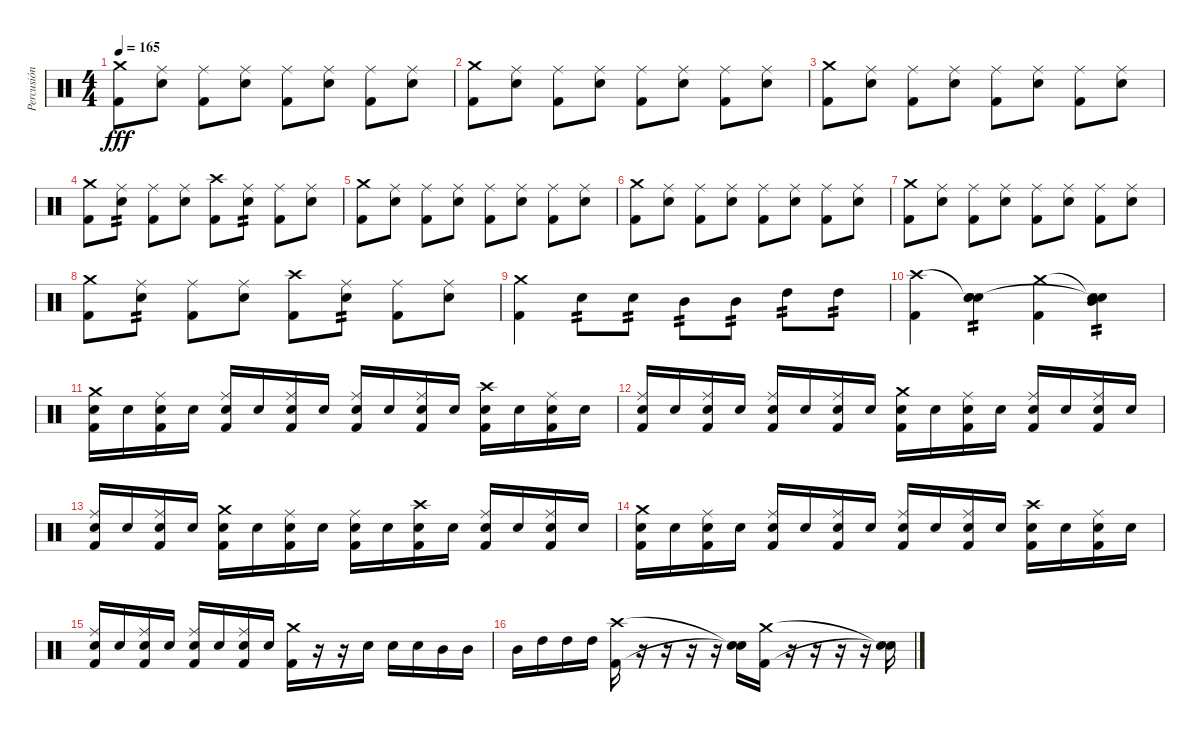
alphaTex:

\track ("Percusión" "Percusión") {instrument percussion}
\staff {score}
\articulation defaults
\ts (4 4)
\tempo 165
\clef neutral
\ks c
("Crash medium (hit)" "Kick (hit) 2").8{dy fff} ("Ride (middle)" "Electric Snare (hit)").8 ("Ride (middle)" "Kick (hit) 2").8 ("Ride (middle)" "Electric Snare (hit)").8 ("Ride (middle)" "Kick (hit) 2").8 ("Ride (middle)" "Electric Snare (hit)").8 ("Ride (middle)" "Kick (hit) 2").8 ("Ride (middle)" "Electric Snare (hit)").8 |
("Crash medium (hit)" "Kick (hit) 2").8 ("Ride (middle)" "Electric Snare (hit)").8 ("Ride (middle)" "Kick (hit) 2").8 ("Ride (middle)" "Electric Snare (hit)").8 ("Ride (middle)" "Kick (hit) 2").8 ("Ride (middle)" "Electric Snare (hit)").8 ("Ride (middle)" "Kick (hit) 2").8 ("Ride (middle)" "Electric Snare (hit)").8 |
("Crash medium (hit)" "Kick (hit) 2").8 ("Ride (middle)" "Electric Snare (hit)").8 ("Ride (middle)" "Kick (hit) 2").8 ("Ride (middle)" "Electric Snare (hit)").8 ("Ride (middle)" "Kick (hit) 2").8 ("Ride (middle)" "Electric Snare (hit)").8 ("Ride (middle)" "Kick (hit) 2").8 ("Ride (middle)" "Electric Snare (hit)").8 |
("Crash medium (hit)" "Kick (hit) 2").8 ("Ride (middle)" "Electric Snare (hit)").8{tp 2} ("Ride (middle)" "Kick (hit) 2").8 ("Ride (middle)" "Electric Snare (hit)").8 ("Crash high (hit)" "Kick (hit) 2").8 ("Ride (middle)" "Electric Snare (hit)").8{tp 2} ("Ride (middle)" "Kick (hit) 2").8 ("Ride (middle)" "Electric Snare (hit)").8 |
("Crash medium (hit)" "Kick (hit) 2").8 ("Ride (middle)" "Electric Snare (hit)").8 ("Ride (middle)" "Kick (hit) 2").8 ("Ride (middle)" "Electric Snare (hit)").8 ("Ride (middle)" "Kick (hit) 2").8 ("Ride (middle)" "Electric Snare (hit)").8 ("Ride (middle)" "Kick (hit) 2").8 ("Ride (middle)" "Electric Snare (hit)").8 |
("Crash medium (hit)" "Kick (hit) 2").8 ("Ride (middle)" "Electric Snare (hit)").8 ("Ride (middle)" "Kick (hit) 2").8 ("Ride (middle)" "Electric Snare (hit)").8 ("Ride (middle)" "Kick (hit) 2").8 ("Ride (middle)" "Electric Snare (hit)").8 ("Ride (middle)" "Kick (hit) 2").8 ("Ride (middle)" "Electric Snare (hit)").8 |
("Crash medium (hit)" "Kick (hit) 2").8 ("Ride (middle)" "Electric Snare (hit)").8 ("Ride (middle)" "Kick (hit) 2").8 ("Ride (middle)" "Electric Snare (hit)").8 ("Ride (middle)" "Kick (hit) 2").8 ("Ride (middle)" "Electric Snare (hit)").8 ("Ride (middle)" "Kick (hit) 2").8 ("Ride (middle)" "Electric Snare (hit)").8 |
("Crash medium (hit)" "Kick (hit) 2").8 ("Ride (middle)" "Electric Snare (hit)").8{tp 2} ("Ride (middle)" "Kick (hit) 2").8 ("Ride (middle)" "Electric Snare (hit)").8 ("Crash high (hit)" "Kick (hit) 2").8 ("Ride (middle)" "Electric Snare (hit)").8{tp 2} ("Ride (middle)" "Kick (hit) 2").8 ("Ride (middle)" "Electric Snare (hit)").8 |
("Crash medium (hit)" "Kick (hit) 2").4 "Electric Snare (hit)".8{tp 2} "Electric Snare (hit)".8{tp 2} "Mid Tom (hit)".8{tp 2} "Mid Tom (hit)".8{tp 2} "High Tom (hit)".8{tp 2} "High Tom (hit)".8{tp 2} |
("Crash high (hit)" "Kick (hit) 2").4 ("Snare (hit)"{t} "Electric Snare (hit)" "Snare (hit)").4{tp 2} ("Crash medium (hit)" "Kick (hit) 2").4 ("Snare (hit)"{t} "Mid Tom (hit)" "Snare (hit)"{t}).4{tp 2} |
("Crash medium (hit)" "Electric Snare (hit)" "Kick (hit) 2").16 "Electric Snare (hit)".16 ("Ride (middle)" "Electric Snare (hit)" "Kick (hit) 2").16 "Electric Snare (hit)".16 ("Ride (middle)" "Electric Snare (hit)" "Kick (hit) 2").16 "Electric Snare (hit)".16 ("Ride (middle)" "Electric Snare (hit)" "Kick (hit) 2").16 "Electric Snare (hit)".16 ("Ride (middle)" "Electric Snare (hit)" "Kick (hit) 2").16 "Electric Snare (hit)".16 ("Ride (middle)" "Electric Snare (hit)" "Kick (hit) 2").16 "Electric Snare (hit)".16 ("Crash high (hit)" "Electric Snare (hit)" "Kick (hit) 2").16 "Electric Snare (hit)".16 ("Ride (middle)" "Electric Snare (hit)" "Kick (hit) 2").16 "Electric Snare (hit)".16 |
("Ride (middle)" "Electric Snare (hit)" "Kick (hit) 2").16 "Electric Snare (hit)".16 ("Ride (middle)" "Electric Snare (hit)" "Kick (hit) 2").16 "Electric Snare (hit)".16 ("Ride (middle)" "Electric Snare (hit)" "Kick (hit) 2").16 "Electric Snare (hit)".16 ("Ride (middle)" "Electric Snare (hit)" "Kick (hit) 2").16 "Electric Snare (hit)".16 ("Crash medium (hit)" "Electric Snare (hit)" "Kick (hit) 2").16 "Electric Snare (hit)".16 ("Ride (middle)" "Electric Snare (hit)" "Kick (hit) 2").16 "Electric Snare (hit)".16 ("Ride (middle)" "Electric Snare (hit)" "Kick (hit) 2").16 "Electric Snare (hit)".16 ("Ride (middle)" "Electric Snare (hit)" "Kick (hit) 2").16 "Electric Snare (hit)".16 |
("Ride (middle)" "Electric Snare (hit)" "Kick (hit) 2").16 "Electric Snare (hit)".16 ("Ride (middle)" "Electric Snare (hit)" "Kick (hit) 2").16 "Electric Snare (hit)".16 ("Crash medium (hit)" "Electric Snare (hit)" "Kick (hit) 2").16 "Electric Snare (hit)".16 ("Ride (middle)" "Electric Snare (hit)" "Kick (hit) 2").16 "Electric Snare (hit)".16 ("Ride (middle)" "Electric Snare (hit)" "Kick (hit) 2").16 "Electric Snare (hit)".16 ("Crash high (hit)" "Electric Snare (hit)" "Kick (hit) 2").16 "Electric Snare (hit)".16 ("Ride (middle)" "Electric Snare (hit)" "Kick (hit) 2").16 "Electric Snare (hit)".16 ("Ride (middle)" "Electric Snare (hit)" "Kick (hit) 2").16 "Electric Snare (hit)".16 |
("Crash medium (hit)" "Electric Snare (hit)" "Kick (hit) 2").16 "Electric Snare (hit)".16 ("Ride (middle)" "Electric Snare (hit)" "Kick (hit) 2").16 "Electric Snare (hit)".16 ("Ride (middle)" "Electric Snare (hit)" "Kick (hit) 2").16 "Electric Snare (hit)".16 ("Ride (middle)" "Electric Snare (hit)" "Kick (hit) 2").16 "Electric Snare (hit)".16 ("Ride (middle)" "Electric Snare (hit)" "Kick (hit) 2").16 "Electric Snare (hit)".16 ("Ride (middle)" "Electric Snare (hit)" "Kick (hit) 2").16 "Electric Snare (hit)".16 ("Crash high (hit)" "Electric Snare (hit)" "Kick (hit) 2").16 "Electric Snare (hit)".16 ("Ride (middle)" "Electric Snare (hit)" "Kick (hit) 2").16 "Electric Snare (hit)".16 |
("Ride (middle)" "Electric Snare (hit)" "Kick (hit) 2").16 "Electric Snare (hit)".16 ("Ride (middle)" "Electric Snare (hit)" "Kick (hit) 2").16 "Electric Snare (hit)".16 ("Ride (middle)" "Electric Snare (hit)" "Kick (hit) 2").16 "Electric Snare (hit)".16 ("Ride (middle)" "Electric Snare (hit)" "Kick (hit) 2").16 "Electric Snare (hit)".16 ("Crash medium (hit)" "Kick (hit) 2").16 r.16 r.16 "Electric Snare (hit)".16 "Electric Snare (hit)".16 "Electric Snare (hit)".16 "Mid Tom (hit)".16 "Mid Tom (hit)".16 |
"Mid Tom (hit)".16 "High Tom (hit)".16 "High Tom (hit)".16 "High Tom (hit)".16 ("Crash high (hit)" "Kick (hit) 2").16 r.16 r.16 r.16 r.16 ("Snare (hit)"{t} "Snare (hit)"{t}).16 ("Crash medium (hit)" "Kick (hit) 2").16 r.16 r.16 r.16 r.16 ("Snare (hit)"{t} "Snare (hit)"{t}).16
